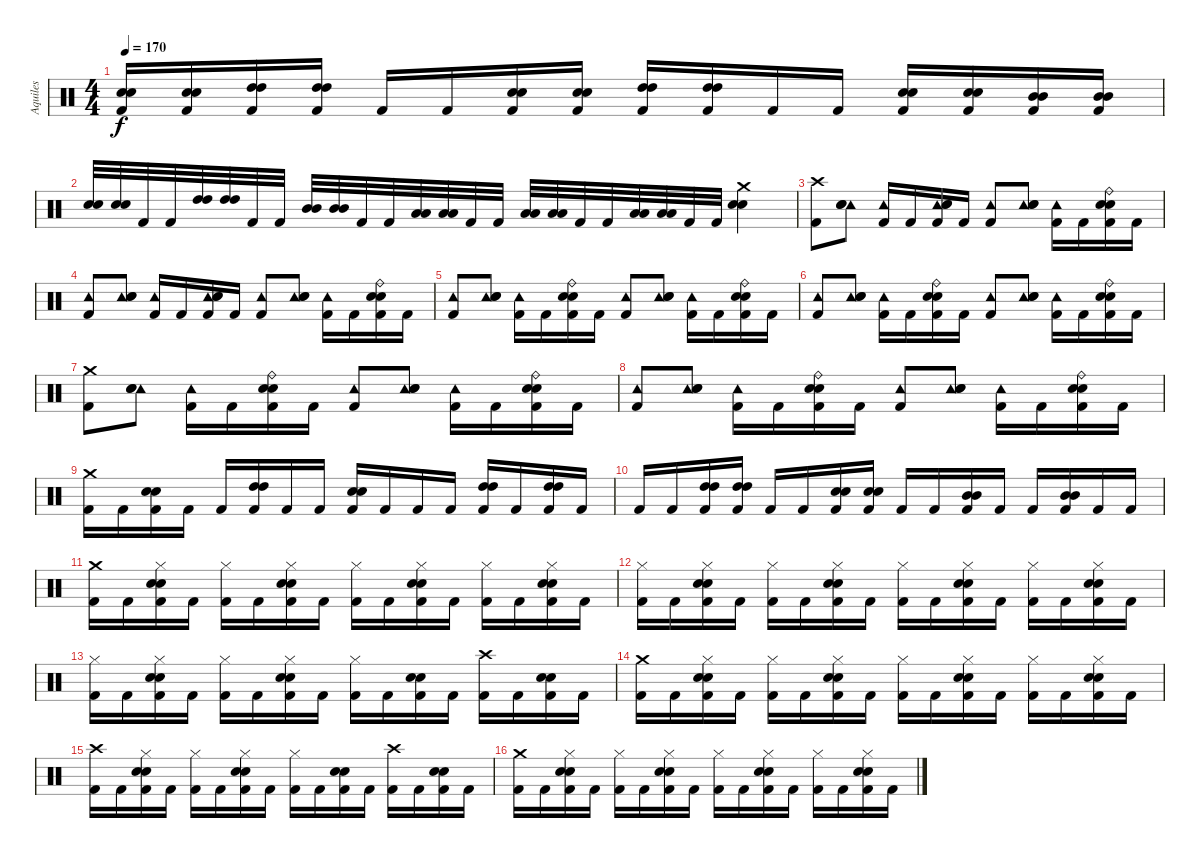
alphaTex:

\track ("Aquiles" "Aquiles") {instrument percussion}
\staff {score}
\articulation defaults
\ts (4 4)
\tempo 170
\clef neutral
\ks c
("Electric Snare (hit)" "Snare (hit) 2" "Kick (hit) 2").16{dy f} ("Electric Snare (hit)" "Snare (hit) 2" "Kick (hit) 2").16 ("High Tom (hit)" "High Tom (hit)" "Kick (hit) 2").16 ("High Tom (hit)" "High Tom (hit)" "Kick (hit) 2").16 "Kick (hit) 2".16 "Kick (hit) 2".16 ("Electric Snare (hit)" "Snare (hit) 2" "Kick (hit) 2").16 ("Electric Snare (hit)" "Snare (hit) 2" "Kick (hit) 2").16 ("High Tom (hit)" "High Tom (hit)" "Kick (hit) 2").16 ("High Tom (hit)" "High Tom (hit)" "Kick (hit) 2").16 "Kick (hit) 2".16 "Kick (hit) 2".16 ("Electric Snare (hit)" "Snare (hit) 2" "Kick (hit) 2").16 ("Electric Snare (hit)" "Snare (hit) 2" "Kick (hit) 2").16 ("Mid Tom (hit)" "Mid Tom (hit)" "Kick (hit) 2").16 ("Mid Tom (hit)" "Mid Tom (hit)" "Kick (hit) 2").16 |
("Electric Snare (hit)" "Snare (hit) 2").32 ("Electric Snare (hit)" "Snare (hit) 2").32 "Kick (hit) 2".32 "Kick (hit) 2".32 ("High Tom (hit)" "High Tom (hit)").32 ("High Tom (hit)" "High Tom (hit)").32 "Kick (hit) 2".32 "Kick (hit) 2".32 ("Mid Tom (hit)" "Mid Tom (hit)").32 ("Mid Tom (hit)" "Mid Tom (hit)").32 "Kick (hit) 2".32 "Kick (hit) 2".32 ("Low Tom (hit)" "Low Tom (hit)").32 ("Low Tom (hit)" "Low Tom (hit)").32 "Kick (hit) 2".32 "Kick (hit) 2".32 ("Low Floor Tom (hit)" "Low Floor Tom (hit)").32 ("Low Floor Tom (hit)" "Low Floor Tom (hit)").32 "Kick (hit) 2".32 "Kick (hit) 2".32 ("Low Floor Tom (hit)" "Low Floor Tom (hit)").32 ("Low Floor Tom (hit)" "Low Floor Tom (hit)").32 "Kick (hit) 2".32 "Kick (hit) 2".32 ("Crash medium (hit)" "Electric Snare (hit)" "Snare (hit) 2").4 |
("Crash high (hit)" "Kick (hit) 2").8 ("Tambourine (hit)" "Electric Snare (hit)" "Snare (hit) 2").8 ("Tambourine (hit)" "Kick (hit) 2").16 "Kick (hit) 2".16 ("Tambourine (hit)" "Electric Snare (hit)" "Snare (hit) 2" "Kick (hit) 2").16 "Kick (hit) 2".16 ("Tambourine (hit)" "Kick (hit) 2").8 ("Tambourine (hit)" "Electric Snare (hit)" "Snare (hit) 2").8 ("Tambourine (hit)" "Kick (hit) 2").16 "Kick (hit) 2".16 ("Ride (bell)" "Electric Snare (hit)" "Snare (hit) 2" "Kick (hit) 2").16 "Kick (hit) 2".16 |
("Tambourine (hit)" "Kick (hit) 2").8 ("Tambourine (hit)" "Electric Snare (hit)" "Snare (hit) 2").8 ("Tambourine (hit)" "Kick (hit) 2").16 "Kick (hit) 2".16 ("Tambourine (hit)" "Electric Snare (hit)" "Snare (hit) 2" "Kick (hit) 2").16 "Kick (hit) 2".16 ("Tambourine (hit)" "Kick (hit) 2").8 ("Tambourine (hit)" "Electric Snare (hit)" "Snare (hit) 2").8 ("Tambourine (hit)" "Kick (hit) 2").16 "Kick (hit) 2".16 ("Ride (bell)" "Electric Snare (hit)" "Snare (hit) 2" "Kick (hit) 2").16 "Kick (hit) 2".16 |
("Tambourine (hit)" "Kick (hit) 2").8 ("Tambourine (hit)" "Electric Snare (hit)" "Snare (hit) 2").8 ("Tambourine (hit)" "Kick (hit) 2").16 "Kick (hit) 2".16 ("Ride (bell)" "Electric Snare (hit)" "Snare (hit) 2" "Kick (hit) 2").16 "Kick (hit) 2".16 ("Tambourine (hit)" "Kick (hit) 2").8 ("Tambourine (hit)" "Electric Snare (hit)" "Snare (hit) 2").8 ("Tambourine (hit)" "Kick (hit) 2").16 "Kick (hit) 2".16 ("Ride (bell)" "Electric Snare (hit)" "Snare (hit) 2" "Kick (hit) 2").16 "Kick (hit) 2".16 |
("Tambourine (hit)" "Kick (hit) 2").8 ("Tambourine (hit)" "Electric Snare (hit)" "Snare (hit) 2").8 ("Tambourine (hit)" "Kick (hit) 2").16 "Kick (hit) 2".16 ("Ride (bell)" "Electric Snare (hit)" "Snare (hit) 2" "Kick (hit) 2").16 "Kick (hit) 2".16 ("Tambourine (hit)" "Kick (hit) 2").8 ("Tambourine (hit)" "Electric Snare (hit)" "Snare (hit) 2").8 ("Tambourine (hit)" "Kick (hit) 2").16 "Kick (hit) 2".16 ("Ride (bell)" "Electric Snare (hit)" "Snare (hit) 2" "Kick (hit) 2").16 "Kick (hit) 2".16 |
("Crash medium (hit)" "Kick (hit) 2").8 ("Tambourine (hit)" "Electric Snare (hit)" "Snare (hit) 2").8 ("Tambourine (hit)" "Kick (hit) 2").16 "Kick (hit) 2".16 ("Ride (bell)" "Electric Snare (hit)" "Snare (hit) 2" "Kick (hit) 2").16 "Kick (hit) 2".16 ("Tambourine (hit)" "Kick (hit) 2").8 ("Tambourine (hit)" "Electric Snare (hit)" "Snare (hit) 2").8 ("Tambourine (hit)" "Kick (hit) 2").16 "Kick (hit) 2".16 ("Ride (bell)" "Electric Snare (hit)" "Snare (hit) 2" "Kick (hit) 2").16 "Kick (hit) 2".16 |
("Tambourine (hit)" "Kick (hit) 2").8 ("Tambourine (hit)" "Electric Snare (hit)" "Snare (hit) 2").8 ("Tambourine (hit)" "Kick (hit) 2").16 "Kick (hit) 2".16 ("Ride (bell)" "Electric Snare (hit)" "Snare (hit) 2" "Kick (hit) 2").16 "Kick (hit) 2".16 ("Tambourine (hit)" "Kick (hit) 2").8 ("Tambourine (hit)" "Electric Snare (hit)" "Snare (hit) 2").8 ("Tambourine (hit)" "Kick (hit) 2").16 "Kick (hit) 2".16 ("Ride (bell)" "Electric Snare (hit)" "Snare (hit) 2" "Kick (hit) 2").16 "Kick (hit) 2".16 |
("Crash medium (hit)" "Kick (hit) 2").16 "Kick (hit) 2".16 ("Electric Snare (hit)" "Snare (hit) 2" "Kick (hit) 2").16 "Kick (hit) 2".16 "Kick (hit) 2".16 ("High Tom (hit)" "High Tom (hit)" "Kick (hit) 2").16 "Kick (hit) 2".16 "Kick (hit) 2".16 ("Electric Snare (hit)" "Snare (hit) 2" "Kick (hit) 2").16 "Kick (hit) 2".16 "Kick (hit) 2".16 "Kick (hit) 2".16 ("High Tom (hit)" "High Tom (hit)" "Kick (hit) 2").16 "Kick (hit) 2".16 ("High Tom (hit)" "High Tom (hit)" "Kick (hit) 2").16 "Kick (hit) 2".16 |
"Kick (hit) 2".16 "Kick (hit) 2".16 ("High Tom (hit)" "High Tom (hit)" "Kick (hit) 2").16 ("High Tom (hit)" "High Tom (hit)" "Kick (hit) 2").16 "Kick (hit) 2".16 "Kick (hit) 2".16 ("Electric Snare (hit)" "Snare (hit) 2" "Kick (hit) 2").16 ("Electric Snare (hit)" "Snare (hit) 2" "Kick (hit) 2").16 "Kick (hit) 2".16 "Kick (hit) 2".16 ("Mid Tom (hit)" "Mid Tom (hit)" "Kick (hit) 2").16 "Kick (hit) 2".16 "Kick (hit) 2".16 ("Mid Tom (hit)" "Mid Tom (hit)" "Kick (hit) 2").16 "Kick (hit) 2".16 "Kick (hit) 2".16 |
("Crash medium (hit)" "Kick (hit) 2").16 "Kick (hit) 2".16 ("Hi-Hat (closed)" "Electric Snare (hit)" "Snare (hit) 2" "Kick (hit) 2").16 "Kick (hit) 2".16 ("Hi-Hat (closed)" "Kick (hit) 2").16 "Kick (hit) 2".16 ("Hi-Hat (closed)" "Electric Snare (hit)" "Snare (hit) 2" "Kick (hit) 2").16 "Kick (hit) 2".16 ("Hi-Hat (closed)" "Kick (hit) 2").16 "Kick (hit) 2".16 ("Hi-Hat (closed)" "Electric Snare (hit)" "Snare (hit) 2" "Kick (hit) 2").16 "Kick (hit) 2".16 ("Hi-Hat (closed)" "Kick (hit) 2").16 "Kick (hit) 2".16 ("Hi-Hat (closed)" "Electric Snare (hit)" "Snare (hit) 2" "Kick (hit) 2").16 "Kick (hit) 2".16 |
("Hi-Hat (closed)" "Kick (hit) 2").16 "Kick (hit) 2".16 ("Hi-Hat (closed)" "Electric Snare (hit)" "Snare (hit) 2" "Kick (hit) 2").16 "Kick (hit) 2".16 ("Hi-Hat (closed)" "Kick (hit) 2").16 "Kick (hit) 2".16 ("Hi-Hat (closed)" "Electric Snare (hit)" "Snare (hit) 2" "Kick (hit) 2").16 "Kick (hit) 2".16 ("Hi-Hat (closed)" "Kick (hit) 2").16 "Kick (hit) 2".16 ("Hi-Hat (closed)" "Electric Snare (hit)" "Snare (hit) 2" "Kick (hit) 2").16 "Kick (hit) 2".16 ("Hi-Hat (closed)" "Kick (hit) 2").16 "Kick (hit) 2".16 ("Hi-Hat (closed)" "Electric Snare (hit)" "Snare (hit) 2" "Kick (hit) 2").16 "Kick (hit) 2".16 |
("Hi-Hat (closed)" "Kick (hit) 2").16 "Kick (hit) 2".16 ("Hi-Hat (closed)" "Electric Snare (hit)" "Snare (hit) 2" "Kick (hit) 2").16 "Kick (hit) 2".16 ("Hi-Hat (closed)" "Kick (hit) 2").16 "Kick (hit) 2".16 ("Hi-Hat (closed)" "Electric Snare (hit)" "Snare (hit) 2" "Kick (hit) 2").16 "Kick (hit) 2".16 ("Hi-Hat (closed)" "Kick (hit) 2").16 "Kick (hit) 2".16 ("Electric Snare (hit)" "Snare (hit) 2" "Kick (hit) 2").16 "Kick (hit) 2".16 ("Crash high (hit)" "Kick (hit) 2").16 "Kick (hit) 2".16 ("Electric Snare (hit)" "Snare (hit) 2" "Kick (hit) 2").16 "Kick (hit) 2".16 |
("Crash medium (hit)" "Kick (hit) 2").16 "Kick (hit) 2".16 ("Hi-Hat (closed)" "Electric Snare (hit)" "Snare (hit) 2" "Kick (hit) 2").16 "Kick (hit) 2".16 ("Hi-Hat (closed)" "Kick (hit) 2").16 "Kick (hit) 2".16 ("Hi-Hat (closed)" "Electric Snare (hit)" "Snare (hit) 2" "Kick (hit) 2").16 "Kick (hit) 2".16 ("Hi-Hat (closed)" "Kick (hit) 2").16 "Kick (hit) 2".16 ("Hi-Hat (closed)" "Electric Snare (hit)" "Snare (hit) 2" "Kick (hit) 2").16 "Kick (hit) 2".16 ("Hi-Hat (closed)" "Kick (hit) 2").16 "Kick (hit) 2".16 ("Hi-Hat (closed)" "Electric Snare (hit)" "Snare (hit) 2" "Kick (hit) 2").16 "Kick (hit) 2".16 |
("Crash high (hit)" "Kick (hit) 2").16 "Kick (hit) 2".16 ("Hi-Hat (closed)" "Electric Snare (hit)" "Snare (hit) 2" "Kick (hit) 2").16 "Kick (hit) 2".16 ("Hi-Hat (closed)" "Kick (hit) 2").16 "Kick (hit) 2".16 ("Hi-Hat (closed)" "Electric Snare (hit)" "Snare (hit) 2" "Kick (hit) 2").16 "Kick (hit) 2".16 ("Hi-Hat (closed)" "Kick (hit) 2").16 "Kick (hit) 2".16 ("Electric Snare (hit)" "Snare (hit) 2" "Kick (hit) 2").16 "Kick (hit) 2".16 ("Crash high (hit)" "Kick (hit) 2").16 "Kick (hit) 2".16 ("Electric Snare (hit)" "Snare (hit) 2" "Kick (hit) 2").16 "Kick (hit) 2".16 |
("Crash medium (hit)" "Kick (hit) 2").16 "Kick (hit) 2".16 ("Hi-Hat (closed)" "Electric Snare (hit)" "Snare (hit) 2" "Kick (hit) 2").16 "Kick (hit) 2".16 ("Hi-Hat (closed)" "Kick (hit) 2").16 "Kick (hit) 2".16 ("Hi-Hat (closed)" "Electric Snare (hit)" "Snare (hit) 2" "Kick (hit) 2").16 "Kick (hit) 2".16 ("Hi-Hat (closed)" "Kick (hit) 2").16 "Kick (hit) 2".16 ("Hi-Hat (closed)" "Electric Snare (hit)" "Snare (hit) 2" "Kick (hit) 2").16 "Kick (hit) 2".16 ("Hi-Hat (closed)" "Kick (hit) 2").16 "Kick (hit) 2".16 ("Hi-Hat (closed)" "Electric Snare (hit)" "Snare (hit) 2" "Kick (hit) 2").16 "Kick (hit) 2".16
